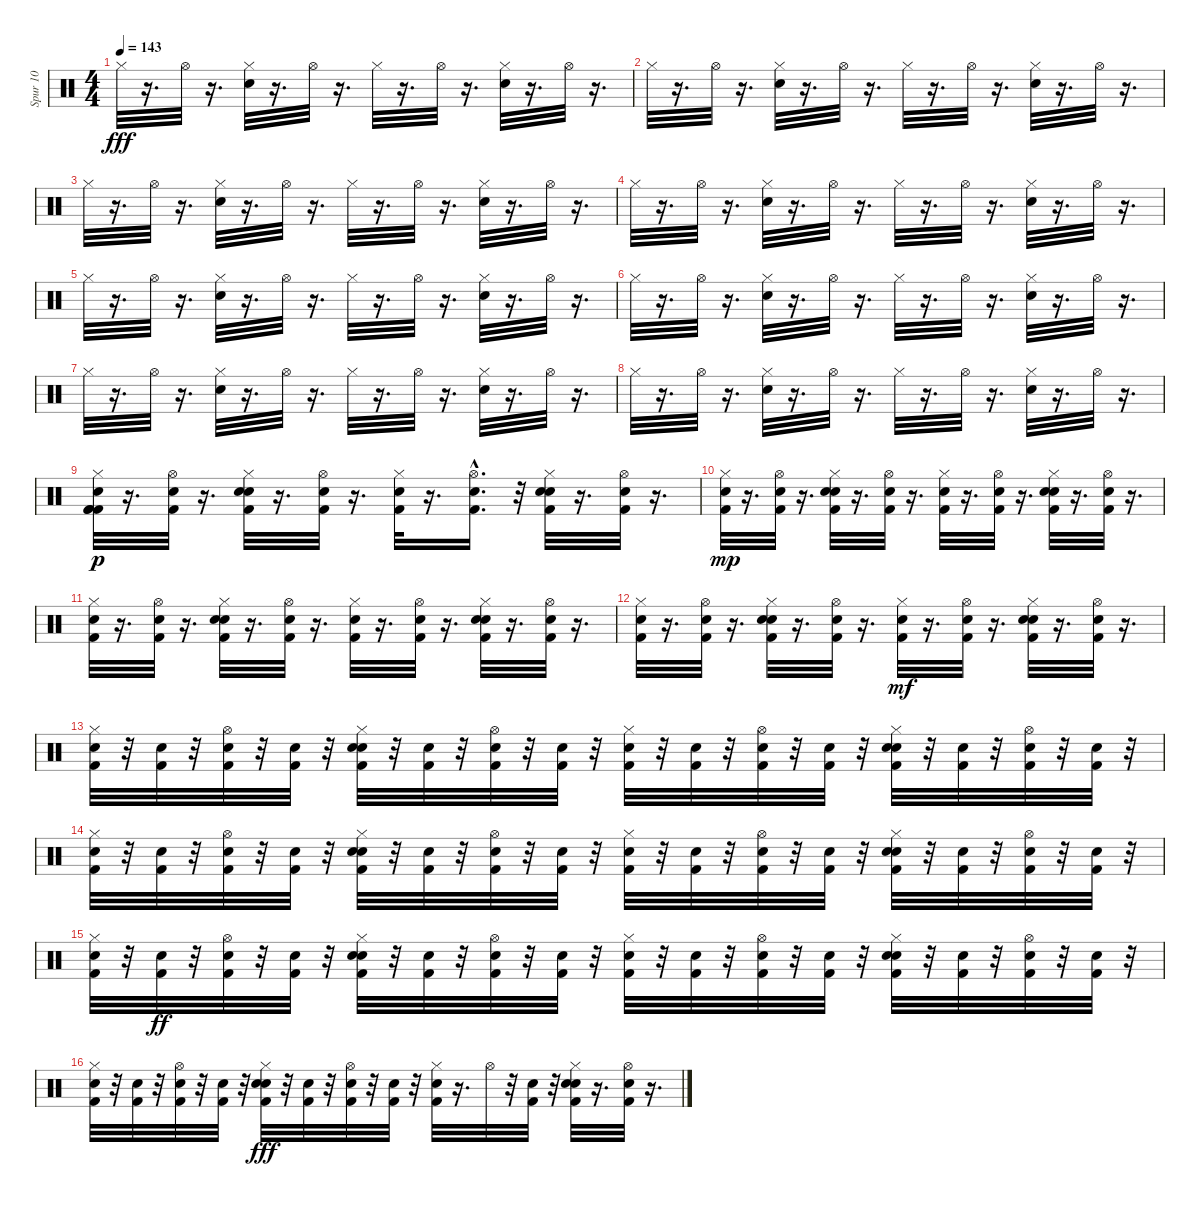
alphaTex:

\track ("Spur 10" "Spur 10") {instrument percussion}
\staff {score}
\articulation defaults
\ts (4 4)
\tempo 143
\clef neutral
\ks c "Hi-Hat (closed)".32{dy fff}
r.16{d} "Hi-Hat (open)".32 r.16{d} ("Hi-Hat (closed)" "Hand Clap (hit)").32 r.16{d} "Hi-Hat (open)".32 r.16{d} "Hi-Hat (closed)".32 r.16{d} "Hi-Hat (open)".32 r.16{d} ("Hi-Hat (closed)" "Hand Clap (hit)").32 r.16{d} "Hi-Hat (open)".32 r.16{d} |
"Hi-Hat (closed)".32 r.16{d} "Hi-Hat (open)".32 r.16{d} ("Hi-Hat (closed)" "Hand Clap (hit)").32 r.16{d} "Hi-Hat (open)".32 r.16{d} "Hi-Hat (closed)".32 r.16{d} "Hi-Hat (open)".32 r.16{d} ("Hi-Hat (closed)" "Hand Clap (hit)").32 r.16{d} "Hi-Hat (open)".32 r.16{d} |
"Hi-Hat (closed)".32 r.16{d} "Hi-Hat (open)".32 r.16{d} ("Hi-Hat (closed)" "Hand Clap (hit)").32 r.16{d} "Hi-Hat (open)".32 r.16{d} "Hi-Hat (closed)".32 r.16{d} "Hi-Hat (open)".32 r.16{d} ("Hi-Hat (closed)" "Hand Clap (hit)").32 r.16{d} "Hi-Hat (open)".32 r.16{d} |
"Hi-Hat (closed)".32 r.16{d} "Hi-Hat (open)".32 r.16{d} ("Hi-Hat (closed)" "Hand Clap (hit)").32 r.16{d} "Hi-Hat (open)".32 r.16{d} "Hi-Hat (closed)".32 r.16{d} "Hi-Hat (open)".32 r.16{d} ("Hi-Hat (closed)" "Hand Clap (hit)").32 r.16{d} "Hi-Hat (open)".32 r.16{d} |
"Hi-Hat (closed)".32 r.16{d} "Hi-Hat (open)".32 r.16{d} ("Hi-Hat (closed)" "Hand Clap (hit)").32 r.16{d} "Hi-Hat (open)".32 r.16{d} "Hi-Hat (closed)".32 r.16{d} "Hi-Hat (open)".32 r.16{d} ("Hi-Hat (closed)" "Hand Clap (hit)").32 r.16{d} "Hi-Hat (open)".32 r.16{d} |
"Hi-Hat (closed)".32 r.16{d} "Hi-Hat (open)".32 r.16{d} ("Hi-Hat (closed)" "Hand Clap (hit)").32 r.16{d} "Hi-Hat (open)".32 r.16{d} "Hi-Hat (closed)".32 r.16{d} "Hi-Hat (open)".32 r.16{d} ("Hi-Hat (closed)" "Hand Clap (hit)").32 r.16{d} "Hi-Hat (open)".32 r.16{d} |
"Hi-Hat (closed)".32 r.16{d} "Hi-Hat (open)".32 r.16{d} ("Hi-Hat (closed)" "Hand Clap (hit)").32 r.16{d} "Hi-Hat (open)".32 r.16{d} "Hi-Hat (closed)".32 r.16{d} "Hi-Hat (open)".32 r.16{d} ("Hi-Hat (closed)" "Hand Clap (hit)").32 r.16{d} "Hi-Hat (open)".32 r.16{d} |
"Hi-Hat (closed)".32 r.16{d} "Hi-Hat (open)".32 r.16{d} ("Hi-Hat (closed)" "Hand Clap (hit)").32 r.16{d} "Hi-Hat (open)".32 r.16{d} "Hi-Hat (closed)".32 r.16{d} "Hi-Hat (open)".32 r.16{d} ("Hi-Hat (closed)" "Hand Clap (hit)").32 r.16{d} "Hi-Hat (open)".32 r.16{d} |
("Hi-Hat (closed)" "Kick (hit) 2" "Kick (hit) 2" "Kick (hit) 2" "Snare (hit) 2").32{dy p} r.16{d} ("Hi-Hat (open)" "Kick (hit) 2" "Snare (hit) 2").32 r.16{d} ("Hi-Hat (closed)" "Hand Clap (hit)" "Kick (hit) 2" "Snare (hit) 2").32 r.16{d} ("Hi-Hat (open)" "Kick (hit) 2" "Snare (hit) 2").32 r.16{d} ("Hi-Hat (closed)" "Kick (hit) 2" "Snare (hit) 2").32 r.16{d} ("Hi-Hat (open)" "Kick (hit) 2"{hac} "Snare (hit) 2").16{d} r.32 ("Hi-Hat (closed)" "Hand Clap (hit)" "Kick (hit) 2" "Snare (hit) 2").32 r.16{d} ("Hi-Hat (open)" "Kick (hit) 2" "Snare (hit) 2").32 r.16{d} |
("Hi-Hat (closed)" "Kick (hit) 2" "Snare (hit) 2").32{dy mp} r.16{d} ("Hi-Hat (open)" "Kick (hit) 2" "Snare (hit) 2").32 r.16{d} ("Hi-Hat (closed)" "Hand Clap (hit)" "Kick (hit) 2" "Snare (hit) 2").32 r.16{d} ("Hi-Hat (open)" "Kick (hit) 2" "Snare (hit) 2").32 r.16{d} ("Hi-Hat (closed)" "Kick (hit) 2" "Snare (hit) 2").32 r.16{d} ("Hi-Hat (open)" "Kick (hit) 2" "Snare (hit) 2").32 r.16{d} ("Hi-Hat (closed)" "Hand Clap (hit)" "Kick (hit) 2" "Snare (hit) 2").32 r.16{d} ("Hi-Hat (open)" "Kick (hit) 2" "Snare (hit) 2").32 r.16{d} |
("Hi-Hat (closed)" "Kick (hit) 2" "Snare (hit) 2").32 r.16{d} ("Hi-Hat (open)" "Kick (hit) 2" "Snare (hit) 2").32 r.16{d} ("Hi-Hat (closed)" "Hand Clap (hit)" "Kick (hit) 2" "Snare (hit) 2").32 r.16{d} ("Hi-Hat (open)" "Kick (hit) 2" "Snare (hit) 2").32 r.16{d} ("Hi-Hat (closed)" "Kick (hit) 2" "Snare (hit) 2").32 r.16{d} ("Hi-Hat (open)" "Kick (hit) 2" "Snare (hit) 2").32 r.16{d} ("Hi-Hat (closed)" "Hand Clap (hit)" "Kick (hit) 2" "Snare (hit) 2").32 r.16{d} ("Hi-Hat (open)" "Kick (hit) 2" "Snare (hit) 2").32 r.16{d} |
("Hi-Hat (closed)" "Kick (hit) 2" "Snare (hit) 2").32 r.16{d} ("Hi-Hat (open)" "Kick (hit) 2" "Snare (hit) 2").32 r.16{d} ("Hi-Hat (closed)" "Hand Clap (hit)" "Kick (hit) 2" "Snare (hit) 2").32 r.16{d} ("Hi-Hat (open)" "Kick (hit) 2" "Snare (hit) 2").32 r.16{d} ("Hi-Hat (closed)" "Kick (hit) 2" "Snare (hit) 2").32{dy mf} r.16{d} ("Hi-Hat (open)" "Kick (hit) 2" "Snare (hit) 2").32 r.16{d} ("Hi-Hat (closed)" "Hand Clap (hit)" "Kick (hit) 2" "Snare (hit) 2").32 r.16{d} ("Hi-Hat (open)" "Kick (hit) 2" "Snare (hit) 2").32 r.16{d} |
("Hi-Hat (closed)" "Kick (hit) 2" "Snare (hit) 2").32 r.32 ("Kick (hit) 2" "Snare (hit) 2").32 r.32 ("Hi-Hat (open)" "Kick (hit) 2" "Snare (hit) 2").32 r.32 ("Kick (hit) 2" "Snare (hit) 2").32 r.32 ("Hi-Hat (closed)" "Hand Clap (hit)" "Kick (hit) 2" "Snare (hit) 2").32 r.32 ("Kick (hit) 2" "Snare (hit) 2").32 r.32 ("Hi-Hat (open)" "Kick (hit) 2" "Snare (hit) 2").32 r.32 ("Kick (hit) 2" "Snare (hit) 2").32 r.32 ("Hi-Hat (closed)" "Kick (hit) 2" "Snare (hit) 2").32 r.32 ("Kick (hit) 2" "Snare (hit) 2").32 r.32 ("Hi-Hat (open)" "Kick (hit) 2" "Snare (hit) 2").32 r.32 ("Kick (hit) 2" "Snare (hit) 2").32 r.32 ("Hi-Hat (closed)" "Hand Clap (hit)" "Kick (hit) 2" "Snare (hit) 2").32 r.32 ("Kick (hit) 2" "Snare (hit) 2").32 r.32 ("Hi-Hat (open)" "Kick (hit) 2" "Snare (hit) 2").32 r.32 ("Kick (hit) 2" "Snare (hit) 2").32 r.32 |
("Hi-Hat (closed)" "Kick (hit) 2" "Snare (hit) 2").32 r.32 ("Kick (hit) 2" "Snare (hit) 2").32 r.32 ("Hi-Hat (open)" "Kick (hit) 2" "Snare (hit) 2").32 r.32 ("Kick (hit) 2" "Snare (hit) 2").32 r.32 ("Hi-Hat (closed)" "Hand Clap (hit)" "Kick (hit) 2" "Snare (hit) 2").32 r.32 ("Kick (hit) 2" "Snare (hit) 2").32 r.32 ("Hi-Hat (open)" "Kick (hit) 2" "Snare (hit) 2").32 r.32 ("Kick (hit) 2" "Snare (hit) 2").32 r.32 ("Hi-Hat (closed)" "Kick (hit) 2" "Snare (hit) 2").32 r.32 ("Kick (hit) 2" "Snare (hit) 2").32 r.32 ("Hi-Hat (open)" "Kick (hit) 2" "Snare (hit) 2").32 r.32 ("Kick (hit) 2" "Snare (hit) 2").32 r.32 ("Hi-Hat (closed)" "Hand Clap (hit)" "Kick (hit) 2" "Snare (hit) 2").32 r.32 ("Kick (hit) 2" "Snare (hit) 2").32 r.32 ("Hi-Hat (open)" "Kick (hit) 2" "Snare (hit) 2").32 r.32 ("Kick (hit) 2" "Snare (hit) 2").32 r.32 |
("Hi-Hat (closed)" "Kick (hit) 2" "Snare (hit) 2").32 r.32 ("Kick (hit) 2" "Snare (hit) 2").32{dy ff} r.32 ("Hi-Hat (open)" "Kick (hit) 2" "Snare (hit) 2").32 r.32 ("Kick (hit) 2" "Snare (hit) 2").32 r.32 ("Hi-Hat (closed)" "Hand Clap (hit)" "Kick (hit) 2" "Snare (hit) 2").32 r.32 ("Kick (hit) 2" "Snare (hit) 2").32 r.32 ("Hi-Hat (open)" "Kick (hit) 2" "Snare (hit) 2").32 r.32 ("Kick (hit) 2" "Snare (hit) 2").32 r.32 ("Hi-Hat (closed)" "Kick (hit) 2" "Snare (hit) 2").32 r.32 ("Kick (hit) 2" "Snare (hit) 2").32 r.32 ("Hi-Hat (open)" "Kick (hit) 2" "Snare (hit) 2").32 r.32 ("Kick (hit) 2" "Snare (hit) 2").32 r.32 ("Hi-Hat (closed)" "Hand Clap (hit)" "Kick (hit) 2" "Snare (hit) 2").32 r.32 ("Kick (hit) 2" "Snare (hit) 2").32 r.32 ("Hi-Hat (open)" "Kick (hit) 2" "Snare (hit) 2").32 r.32 ("Kick (hit) 2" "Snare (hit) 2").32 r.32 |
("Hi-Hat (closed)" "Kick (hit) 2" "Snare (hit) 2").32 r.32 ("Kick (hit) 2" "Snare (hit) 2").32 r.32 ("Hi-Hat (open)" "Kick (hit) 2" "Snare (hit) 2").32 r.32 ("Kick (hit) 2" "Snare (hit) 2").32 r.32 ("Hi-Hat (closed)" "Hand Clap (hit)" "Kick (hit) 2" "Snare (hit) 2").32{dy fff} r.32 ("Kick (hit) 2" "Snare (hit) 2").32 r.32 ("Hi-Hat (open)" "Kick (hit) 2" "Snare (hit) 2").32 r.32 ("Kick (hit) 2" "Snare (hit) 2").32 r.32 ("Hi-Hat (closed)" "Kick (hit) 2" "Snare (hit) 2").32 r.16{d} "Hi-Hat (open)".32 r.32 ("Kick (hit) 2" "Snare (hit) 2").32 r.32 ("Hi-Hat (closed)" "Hand Clap (hit)" "Kick (hit) 2" "Snare (hit) 2").32 r.16{d} ("Hi-Hat (open)" "Kick (hit) 2" "Snare (hit) 2").32 r.16{d}
